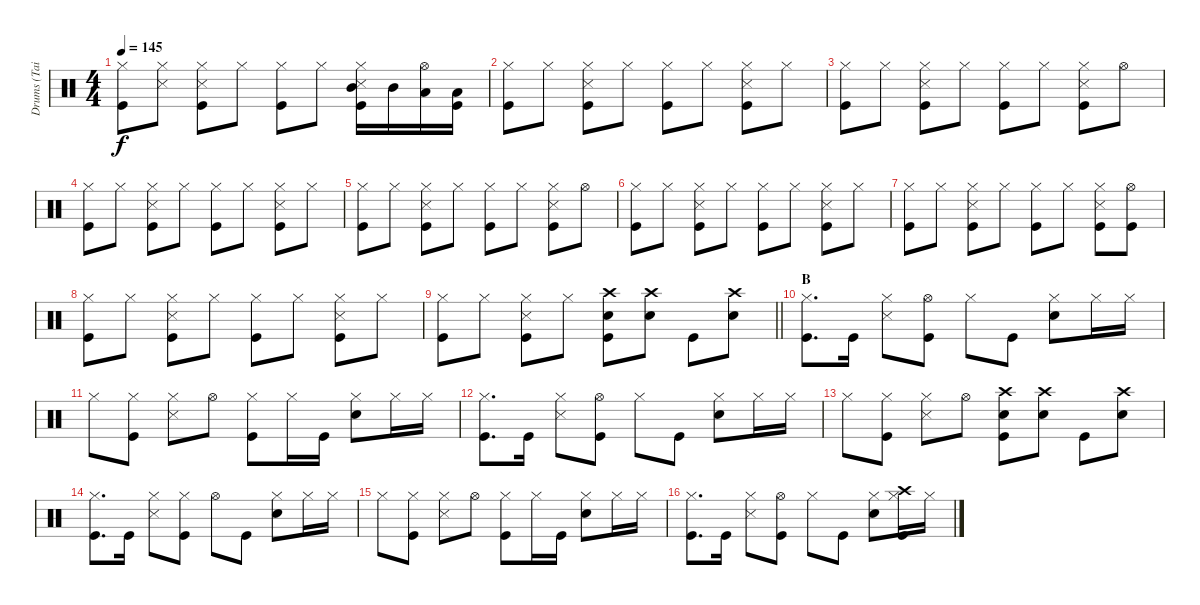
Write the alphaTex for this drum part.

\track ("Drums (Tainaka Ritsu)" "Drums (Tai") {instrument percussion}
\staff {score}
\articulation defaults
\ts (4 4)
\tempo 145
\clef neutral
\ks c
("Hi-Hat (closed)" "Kick (hit)").8{dy f} ("Hi-Hat (closed)" "Snare (side stick) 3").8 ("Hi-Hat (closed)" "Snare (side stick) 3" "Kick (hit)").8 "Hi-Hat (closed)".8 ("Hi-Hat (closed)" "Kick (hit)").8 "Hi-Hat (closed)".8 ("Hi-Hat (closed)" "Snare (side stick) 3" "Mid Tom (hit)" "Kick (hit)").16 "Mid Tom (hit)".16 ("Hi-Hat (open)" "Low Tom (hit)").16 ("Low Tom (hit)" "Kick (hit)").16 |
("Hi-Hat (closed)" "Kick (hit)").8 "Hi-Hat (closed)".8 ("Hi-Hat (closed)" "Snare (side stick) 3" "Kick (hit)").8 "Hi-Hat (closed)".8 ("Hi-Hat (closed)" "Kick (hit)").8 "Hi-Hat (closed)".8 ("Hi-Hat (closed)" "Snare (side stick) 3" "Kick (hit)").8 "Hi-Hat (closed)".8 |
("Hi-Hat (closed)" "Kick (hit)").8 "Hi-Hat (closed)".8 ("Hi-Hat (closed)" "Snare (side stick) 3" "Kick (hit)").8 "Hi-Hat (closed)".8 ("Hi-Hat (closed)" "Kick (hit)").8 "Hi-Hat (closed)".8 ("Hi-Hat (closed)" "Snare (side stick) 3" "Kick (hit)").8 "Hi-Hat (open)".8 |
("Hi-Hat (closed)" "Kick (hit)").8 "Hi-Hat (closed)".8 ("Hi-Hat (closed)" "Snare (side stick) 3" "Kick (hit)").8 "Hi-Hat (closed)".8 ("Hi-Hat (closed)" "Kick (hit)").8 "Hi-Hat (closed)".8 ("Hi-Hat (closed)" "Snare (side stick) 3" "Kick (hit)").8 "Hi-Hat (closed)".8 |
("Hi-Hat (closed)" "Kick (hit)").8 "Hi-Hat (closed)".8 ("Hi-Hat (closed)" "Snare (side stick) 3" "Kick (hit)").8 "Hi-Hat (closed)".8 ("Hi-Hat (closed)" "Kick (hit)").8 "Hi-Hat (closed)".8 ("Hi-Hat (closed)" "Snare (side stick) 3" "Kick (hit)").8 "Hi-Hat (open)".8 |
("Hi-Hat (closed)" "Kick (hit)").8 "Hi-Hat (closed)".8 ("Hi-Hat (closed)" "Snare (side stick) 3" "Kick (hit)").8 "Hi-Hat (closed)".8 ("Hi-Hat (closed)" "Kick (hit)").8 "Hi-Hat (closed)".8 ("Hi-Hat (closed)" "Snare (side stick) 3" "Kick (hit)").8 "Hi-Hat (closed)".8 |
("Hi-Hat (closed)" "Kick (hit)").8 "Hi-Hat (closed)".8 ("Hi-Hat (closed)" "Snare (side stick) 3" "Kick (hit)").8 "Hi-Hat (closed)".8 ("Hi-Hat (closed)" "Kick (hit)").8 "Hi-Hat (closed)".8 ("Hi-Hat (closed)" "Snare (side stick) 3" "Kick (hit)").8 ("Hi-Hat (open)" "Kick (hit)").8 |
("Hi-Hat (closed)" "Kick (hit)").8 "Hi-Hat (closed)".8 ("Hi-Hat (closed)" "Snare (side stick) 3" "Kick (hit)").8 "Hi-Hat (closed)".8 ("Hi-Hat (closed)" "Kick (hit)").8 "Hi-Hat (closed)".8 ("Hi-Hat (closed)" "Snare (side stick) 3" "Kick (hit)").8 "Hi-Hat (closed)".8 |
\barLineRight lightlight
("Hi-Hat (closed)" "Kick (hit)").8 "Hi-Hat (closed)".8 ("Hi-Hat (closed)" "Snare (side stick) 3" "Kick (hit)").8 "Hi-Hat (closed)".8 ("Crash high (hit)" "Snare (hit) 2" "Kick (hit)").8 ("Crash high (hit)" "Snare (hit) 2").8 "Kick (hit)".8 ("Crash high (hit)" "Snare (hit) 2").8 |
\section ("" "B")
("Hi-Hat (closed)" "Kick (hit)").8{d} "Kick (hit)".16 ("Hi-Hat (closed)" "Snare (side stick) 3").8 ("Hi-Hat (open)" "Kick (hit)").8 "Hi-Hat (closed)".8 "Kick (hit)".8 ("Hi-Hat (closed)" "Snare (hit) 2").8 "Hi-Hat (closed)".16 "Hi-Hat (closed)".16 |
"Hi-Hat (closed)".8 ("Hi-Hat (closed)" "Kick (hit)").8 ("Hi-Hat (closed)" "Snare (side stick) 3").8 "Hi-Hat (open)".8 ("Hi-Hat (closed)" "Kick (hit)").8 "Hi-Hat (closed)".16 "Kick (hit)".16 ("Hi-Hat (closed)" "Snare (hit) 2").8 "Hi-Hat (closed)".16 "Hi-Hat (closed)".16 |
("Hi-Hat (closed)" "Kick (hit)").8{d} "Kick (hit)".16 ("Hi-Hat (closed)" "Snare (side stick) 3").8 ("Hi-Hat (open)" "Kick (hit)").8 "Hi-Hat (closed)".8 "Kick (hit)".8 ("Hi-Hat (closed)" "Snare (hit) 2").8 "Hi-Hat (closed)".16 "Hi-Hat (closed)".16 |
"Hi-Hat (closed)".8 ("Hi-Hat (closed)" "Kick (hit)").8 ("Hi-Hat (closed)" "Snare (side stick) 3").8 "Hi-Hat (open)".8 ("Crash high (hit)" "Snare (hit) 2" "Kick (hit)").8 ("Crash high (hit)" "Snare (hit) 2").8 "Kick (hit)".8 ("Crash high (hit)" "Snare (hit) 2").8 |
("Hi-Hat (closed)" "Kick (hit)").8{d} "Kick (hit)".16 ("Hi-Hat (closed)" "Snare (side stick) 3").8 ("Hi-Hat (closed)" "Kick (hit)").8 "Hi-Hat (open)".8 "Kick (hit)".8 ("Hi-Hat (closed)" "Snare (hit) 2").8 "Hi-Hat (closed)".16 "Hi-Hat (closed)".16 |
"Hi-Hat (closed)".8 ("Hi-Hat (closed)" "Kick (hit)").8 ("Hi-Hat (closed)" "Snare (side stick) 3").8 "Hi-Hat (open)".8 ("Hi-Hat (closed)" "Kick (hit)").8 "Hi-Hat (closed)".16 "Kick (hit)".16 ("Hi-Hat (closed)" "Snare (hit) 2").8 "Hi-Hat (closed)".16 "Hi-Hat (closed)".16 |
("Hi-Hat (closed)" "Kick (hit)").8{d} "Kick (hit)".16 ("Hi-Hat (closed)" "Snare (side stick) 3").8 ("Hi-Hat (open)" "Kick (hit)").8 "Hi-Hat (closed)".8 "Kick (hit)".8 ("Hi-Hat (closed)" "Snare (hit) 2").8 ("Hi-Hat (closed)" "Crash high (hit)" "Kick (hit)").16 "Hi-Hat (closed)".16
